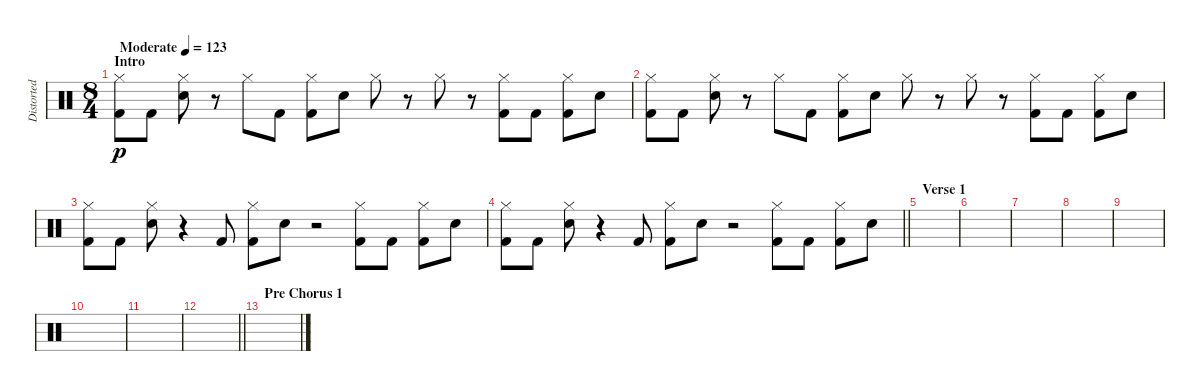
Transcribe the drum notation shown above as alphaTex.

\track ("Distorted Drums" "Distorted ") {instrument percussion}
\staff {score}
\articulation defaults
\ts (8 4)
\section ("" "Intro")
\tempo (123 "Moderate")
\clef neutral
\ks c
("Hi-Hat (closed)" "Kick (hit) 2").8{dy p} "Kick (hit) 2".8 ("Hi-Hat (closed)" "Snare (hit) 2").8 r.8 "Hi-Hat (closed)".8 "Kick (hit) 2".8 ("Hi-Hat (closed)" "Kick (hit) 2").8 "Snare (hit) 2".8 "Hi-Hat (closed)".8 r.8 "Hi-Hat (closed)".8 r.8 ("Hi-Hat (closed)" "Kick (hit) 2").8 "Kick (hit) 2".8 ("Hi-Hat (closed)" "Kick (hit) 2").8 "Snare (hit) 2".8 |
("Hi-Hat (closed)" "Kick (hit) 2").8 "Kick (hit) 2".8 ("Hi-Hat (closed)" "Snare (hit) 2").8 r.8 "Hi-Hat (closed)".8 "Kick (hit) 2".8 ("Hi-Hat (closed)" "Kick (hit) 2").8 "Snare (hit) 2".8 "Hi-Hat (closed)".8 r.8 "Hi-Hat (closed)".8 r.8 ("Hi-Hat (closed)" "Kick (hit) 2").8 "Kick (hit) 2".8 ("Hi-Hat (closed)" "Kick (hit) 2").8 "Snare (hit) 2".8 |
("Hi-Hat (closed)" "Kick (hit) 2").8 "Kick (hit) 2".8 ("Hi-Hat (closed)" "Snare (hit) 2").8 r.4 "Kick (hit) 2".8 ("Hi-Hat (closed)" "Kick (hit) 2").8 "Snare (hit) 2".8 r.2 ("Hi-Hat (closed)" "Kick (hit) 2").8 "Kick (hit) 2".8 ("Hi-Hat (closed)" "Kick (hit) 2").8 "Snare (hit) 2".8 |
\barLineRight lightlight
("Hi-Hat (closed)" "Kick (hit) 2").8 "Kick (hit) 2".8 ("Hi-Hat (closed)" "Snare (hit) 2").8 r.4 "Kick (hit) 2".8 ("Hi-Hat (closed)" "Kick (hit) 2").8 "Snare (hit) 2".8 r.2 ("Hi-Hat (closed)" "Kick (hit) 2").8 "Kick (hit) 2".8 ("Hi-Hat (closed)" "Kick (hit) 2").8 "Snare (hit) 2".8 |
\section ("" "Verse 1")
|
|
|
|
|
|
|
\barLineRight lightlight
|
\section ("" "Pre Chorus 1")
